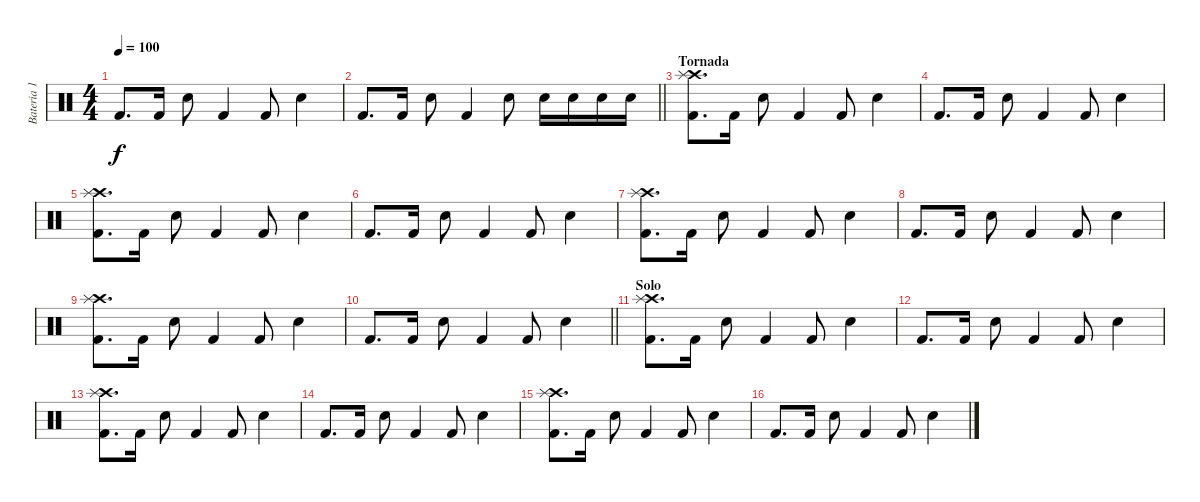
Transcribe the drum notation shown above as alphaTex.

\track ("Bateria 1" "Bateria 1") {instrument percussion}
\staff {score}
\articulation defaults
\ts (4 4)
\tempo 100
\clef neutral
\ks c "Kick (hit) 2".8{d dy f} "Kick (hit) 2".16 "Electric Snare (hit)".8 "Kick (hit) 2".4 "Kick (hit) 2".8 "Electric Snare (hit)".4
|
\barLineRight lightlight "Kick (hit) 2".8{d} "Kick (hit) 2".16 "Electric Snare (hit)".8 "Kick (hit) 2".4 "Electric Snare (hit)".8 "Electric Snare (hit)".16 "Electric Snare (hit)".16 "Electric Snare (hit)".16 "Electric Snare (hit)".16
|
\section ("" "Tornada")
("Crash high (hit)" "Kick (hit) 2" "Splash (hit)").8{d} "Kick (hit) 2".16 "Electric Snare (hit)".8 "Kick (hit) 2".4 "Kick (hit) 2".8 "Electric Snare (hit)".4 |
"Kick (hit) 2".8{d} "Kick (hit) 2".16 "Electric Snare (hit)".8 "Kick (hit) 2".4 "Kick (hit) 2".8 "Electric Snare (hit)".4 |
("Crash high (hit)" "Kick (hit) 2" "Splash (hit)").8{d} "Kick (hit) 2".16 "Electric Snare (hit)".8 "Kick (hit) 2".4 "Kick (hit) 2".8 "Electric Snare (hit)".4 |
"Kick (hit) 2".8{d} "Kick (hit) 2".16 "Electric Snare (hit)".8 "Kick (hit) 2".4 "Kick (hit) 2".8 "Electric Snare (hit)".4 |
("Crash high (hit)" "Kick (hit) 2" "Splash (hit)").8{d} "Kick (hit) 2".16 "Electric Snare (hit)".8 "Kick (hit) 2".4 "Kick (hit) 2".8 "Electric Snare (hit)".4 |
"Kick (hit) 2".8{d} "Kick (hit) 2".16 "Electric Snare (hit)".8 "Kick (hit) 2".4 "Kick (hit) 2".8 "Electric Snare (hit)".4 |
("Crash high (hit)" "Kick (hit) 2" "Splash (hit)").8{d} "Kick (hit) 2".16 "Electric Snare (hit)".8 "Kick (hit) 2".4 "Kick (hit) 2".8 "Electric Snare (hit)".4 |
\barLineRight lightlight "Kick (hit) 2".8{d} "Kick (hit) 2".16 "Electric Snare (hit)".8 "Kick (hit) 2".4 "Kick (hit) 2".8 "Electric Snare (hit)".4
|
\section ("" "Solo")
("Crash high (hit)" "Kick (hit) 2" "Splash (hit)").8{d} "Kick (hit) 2".16 "Electric Snare (hit)".8 "Kick (hit) 2".4 "Kick (hit) 2".8 "Electric Snare (hit)".4 |
"Kick (hit) 2".8{d} "Kick (hit) 2".16 "Electric Snare (hit)".8 "Kick (hit) 2".4 "Kick (hit) 2".8 "Electric Snare (hit)".4 |
("Crash high (hit)" "Kick (hit) 2" "Splash (hit)").8{d} "Kick (hit) 2".16 "Electric Snare (hit)".8 "Kick (hit) 2".4 "Kick (hit) 2".8 "Electric Snare (hit)".4 |
"Kick (hit) 2".8{d} "Kick (hit) 2".16 "Electric Snare (hit)".8 "Kick (hit) 2".4 "Kick (hit) 2".8 "Electric Snare (hit)".4 |
("Crash high (hit)" "Kick (hit) 2" "Splash (hit)").8{d} "Kick (hit) 2".16 "Electric Snare (hit)".8 "Kick (hit) 2".4 "Kick (hit) 2".8 "Electric Snare (hit)".4 |
"Kick (hit) 2".8{d} "Kick (hit) 2".16 "Electric Snare (hit)".8 "Kick (hit) 2".4 "Kick (hit) 2".8 "Electric Snare (hit)".4
